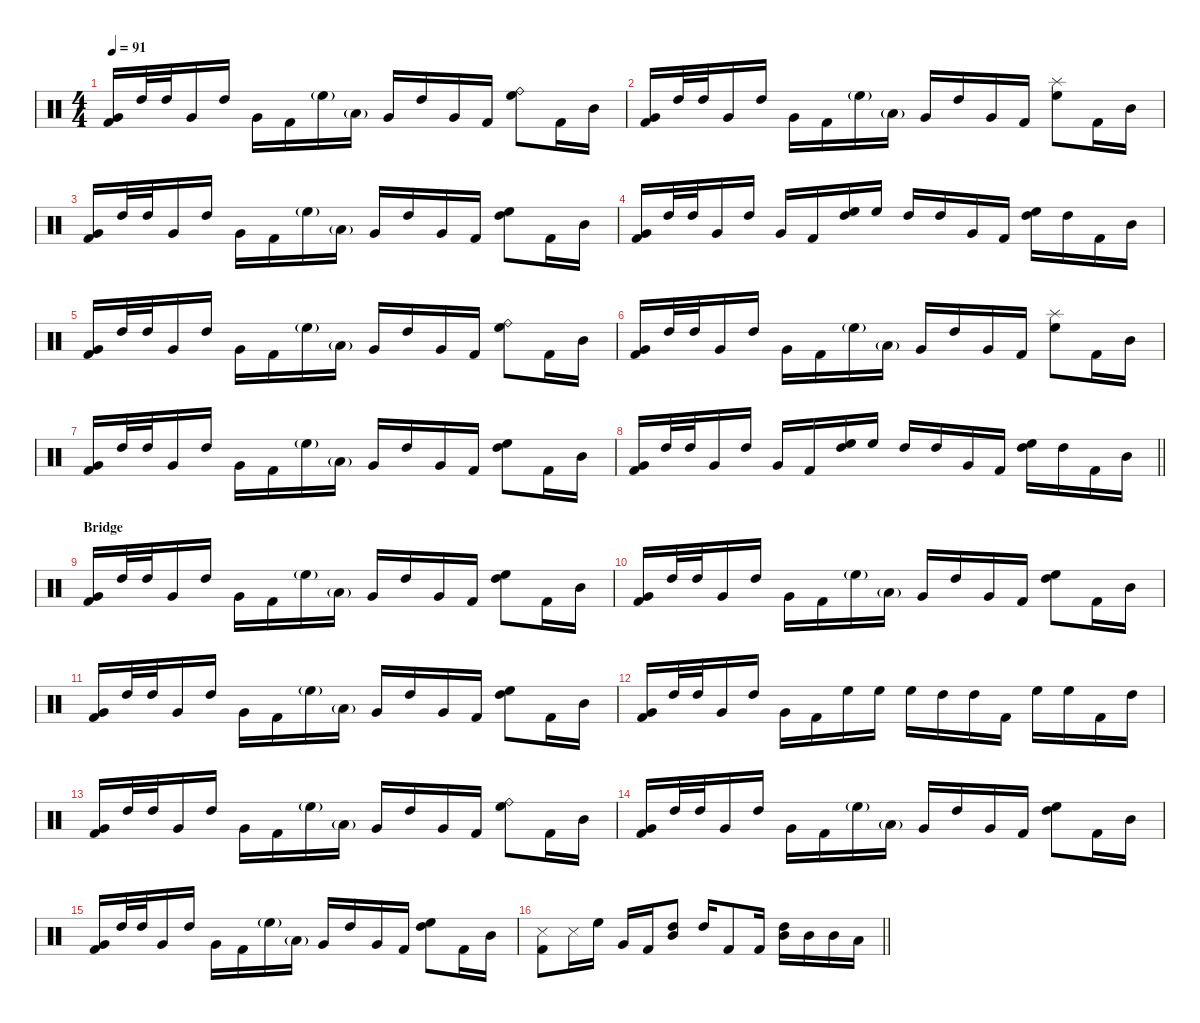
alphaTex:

\defaultSystemsLayout 4
\hideDynamics
\bracketExtendMode nobrackets
\singleTrackTrackNamePolicy hidden
\multiTrackTrackNamePolicy hidden
\otherSystemsTrackNameOrientation horizontal
\track ("Drums" "drm.") {instrument percussion}
\staff {score}
\articulation defaults
\ts (4 4)
\section ("" "")
\tempo 91
\clef neutral
\ks c
("Very Low Tom (hit)" "Kick (hit) 2").16{dy f beam Up} "High Tom (hit)".32{beam Up} "High Tom (hit)".32{beam Up} "Very Low Tom (hit)".16{beam Up} "High Tom (hit)".16{beam Up} "Very Low Tom (hit)".16{beam Down} "Kick (hit) 2".16{beam Down} "High Floor Tom (hit)"{g}.16{dy ff beam Down} "Low Floor Tom (hit)"{g}.16{beam Down} "Very Low Tom (hit)".16{dy f beam Up} "High Tom (hit)".16{beam Up} "Very Low Tom (hit)".16{beam Up} "Kick (hit) 2".16{beam Up} ("Ride (bell)" "High Floor Tom (hit)").8{dy mp beam Down} "Kick (hit) 2".16{dy f beam Down} "Mid Tom (hit)".16{beam Down} |
("Very Low Tom (hit)" "Kick (hit) 2").16{beam Up} "High Tom (hit)".32{beam Up} "High Tom (hit)".32{beam Up} "Very Low Tom (hit)".16{beam Up} "High Tom (hit)".16{beam Up} "Very Low Tom (hit)".16{beam Down} "Kick (hit) 2".16{beam Down} "High Floor Tom (hit)"{g}.16{dy ff beam Down} "Low Floor Tom (hit)"{g}.16{beam Down} "Very Low Tom (hit)".16{dy f beam Up} "High Tom (hit)".16{beam Up} "Very Low Tom (hit)".16{beam Up} "Kick (hit) 2".16{beam Up} ("Splash (hit)" "High Floor Tom (hit)").8{dy mf beam Down} "Kick (hit) 2".16{dy f beam Down} "Mid Tom (hit)".16{beam Down} |
("Very Low Tom (hit)" "Kick (hit) 2").16{beam Up} "High Tom (hit)".32{beam Up} "High Tom (hit)".32{beam Up} "Very Low Tom (hit)".16{beam Up} "High Tom (hit)".16{beam Up} "Very Low Tom (hit)".16{beam Down} "Kick (hit) 2".16{beam Down} "High Floor Tom (hit)"{g}.16{dy ff beam Down} "Low Floor Tom (hit)"{g}.16{beam Down} "Very Low Tom (hit)".16{dy f beam Up} "High Tom (hit)".16{beam Up} "Very Low Tom (hit)".16{beam Up} "Kick (hit) 2".16{beam Up} ("High Floor Tom (hit)" "High Tom (hit)").8{beam Down} "Kick (hit) 2".16{beam Down} "Mid Tom (hit)".16{beam Down} |
("Very Low Tom (hit)" "Kick (hit) 2").16{beam Up} "High Tom (hit)".32{beam Up} "High Tom (hit)".32{beam Up} "Very Low Tom (hit)".16{beam Up} "High Tom (hit)".16{beam Up} "Very Low Tom (hit)".16{beam Up} "Kick (hit) 2".16{beam Up} ("High Floor Tom (hit)" "High Tom (hit)").16{beam Up} "High Floor Tom (hit)".16{beam Up} "High Tom (hit)".16{beam Up} "High Tom (hit)".16{beam Up} "Very Low Tom (hit)".16{beam Up} "Kick (hit) 2".16{beam Up} ("High Floor Tom (hit)" "High Tom (hit)").16{beam Down} "High Tom (hit)".16{beam Down} "Kick (hit) 2".16{beam Down} "Mid Tom (hit)".16{beam Down} |
("Very Low Tom (hit)" "Kick (hit) 2").16{beam Up} "High Tom (hit)".32{beam Up} "High Tom (hit)".32{beam Up} "Very Low Tom (hit)".16{beam Up} "High Tom (hit)".16{beam Up} "Very Low Tom (hit)".16{beam Down} "Kick (hit) 2".16{beam Down} "High Floor Tom (hit)"{g}.16{dy ff beam Down} "Low Floor Tom (hit)"{g}.16{beam Down} "Very Low Tom (hit)".16{dy f beam Up} "High Tom (hit)".16{beam Up} "Very Low Tom (hit)".16{beam Up} "Kick (hit) 2".16{beam Up} ("Ride (bell)" "High Floor Tom (hit)").8{dy mp beam Down} "Kick (hit) 2".16{dy f beam Down} "Mid Tom (hit)".16{beam Down} |
("Very Low Tom (hit)" "Kick (hit) 2").16{beam Up} "High Tom (hit)".32{beam Up} "High Tom (hit)".32{beam Up} "Very Low Tom (hit)".16{beam Up} "High Tom (hit)".16{beam Up} "Very Low Tom (hit)".16{beam Down} "Kick (hit) 2".16{beam Down} "High Floor Tom (hit)"{g}.16{dy ff beam Down} "Low Floor Tom (hit)"{g}.16{beam Down} "Very Low Tom (hit)".16{dy f beam Up} "High Tom (hit)".16{beam Up} "Very Low Tom (hit)".16{beam Up} "Kick (hit) 2".16{beam Up} ("Splash (hit)" "High Floor Tom (hit)").8{dy mf beam Down} "Kick (hit) 2".16{dy f beam Down} "Mid Tom (hit)".16{beam Down} |
("Very Low Tom (hit)" "Kick (hit) 2").16{beam Up} "High Tom (hit)".32{beam Up} "High Tom (hit)".32{beam Up} "Very Low Tom (hit)".16{beam Up} "High Tom (hit)".16{beam Up} "Very Low Tom (hit)".16{beam Down} "Kick (hit) 2".16{beam Down} "High Floor Tom (hit)"{g}.16{dy ff beam Down} "Low Floor Tom (hit)"{g}.16{beam Down} "Very Low Tom (hit)".16{dy f beam Up} "High Tom (hit)".16{beam Up} "Very Low Tom (hit)".16{beam Up} "Kick (hit) 2".16{beam Up} ("High Floor Tom (hit)" "High Tom (hit)").8{beam Down} "Kick (hit) 2".16{beam Down} "Mid Tom (hit)".16{beam Down} |
\barLineRight lightlight
("Very Low Tom (hit)" "Kick (hit) 2").16{beam Up} "High Tom (hit)".32{beam Up} "High Tom (hit)".32{beam Up} "Very Low Tom (hit)".16{beam Up} "High Tom (hit)".16{beam Up} "Very Low Tom (hit)".16{beam Up} "Kick (hit) 2".16{beam Up} ("High Floor Tom (hit)" "High Tom (hit)").16{beam Up} "High Floor Tom (hit)".16{beam Up} "High Tom (hit)".16{beam Up} "High Tom (hit)".16{beam Up} "Very Low Tom (hit)".16{beam Up} "Kick (hit) 2".16{beam Up} ("High Floor Tom (hit)" "High Tom (hit)").16{beam Down} "High Tom (hit)".16{beam Down} "Kick (hit) 2".16{beam Down} "Mid Tom (hit)".16{beam Down} |
\section ("" "Bridge")
("Very Low Tom (hit)" "Kick (hit) 2").16{beam Up} "High Tom (hit)".32{beam Up} "High Tom (hit)".32{beam Up} "Very Low Tom (hit)".16{beam Up} "High Tom (hit)".16{beam Up} "Very Low Tom (hit)".16{beam Down} "Kick (hit) 2".16{beam Down} "High Floor Tom (hit)"{g}.16{dy ff beam Down} "Low Floor Tom (hit)"{g}.16{beam Down} "Very Low Tom (hit)".16{dy f beam Up} "High Tom (hit)".16{beam Up} "Very Low Tom (hit)".16{beam Up} "Kick (hit) 2".16{beam Up} ("High Floor Tom (hit)" "High Tom (hit)").8{beam Down} "Kick (hit) 2".16{beam Down} "Mid Tom (hit)".16{beam Down} |
("Very Low Tom (hit)" "Kick (hit) 2").16{beam Up} "High Tom (hit)".32{beam Up} "High Tom (hit)".32{beam Up} "Very Low Tom (hit)".16{beam Up} "High Tom (hit)".16{beam Up} "Very Low Tom (hit)".16{beam Down} "Kick (hit) 2".16{beam Down} "High Floor Tom (hit)"{g}.16{dy ff beam Down} "Low Floor Tom (hit)"{g}.16{beam Down} "Very Low Tom (hit)".16{dy f beam Up} "High Tom (hit)".16{beam Up} "Very Low Tom (hit)".16{beam Up} "Kick (hit) 2".16{beam Up} ("High Floor Tom (hit)" "High Tom (hit)").8{beam Down} "Kick (hit) 2".16{beam Down} "Mid Tom (hit)".16{beam Down} |
("Very Low Tom (hit)" "Kick (hit) 2").16{beam Up} "High Tom (hit)".32{beam Up} "High Tom (hit)".32{beam Up} "Very Low Tom (hit)".16{beam Up} "High Tom (hit)".16{beam Up} "Very Low Tom (hit)".16{beam Down} "Kick (hit) 2".16{beam Down} "High Floor Tom (hit)"{g}.16{dy ff beam Down} "Low Floor Tom (hit)"{g}.16{beam Down} "Very Low Tom (hit)".16{dy f beam Up} "High Tom (hit)".16{beam Up} "Very Low Tom (hit)".16{beam Up} "Kick (hit) 2".16{beam Up} ("High Floor Tom (hit)" "High Tom (hit)").8{beam Down} "Kick (hit) 2".16{beam Down} "Mid Tom (hit)".16{beam Down} |
("Very Low Tom (hit)" "Kick (hit) 2").16{beam Up} "High Tom (hit)".32{beam Up} "High Tom (hit)".32{beam Up} "Very Low Tom (hit)".16{beam Up} "High Tom (hit)".16{beam Up} "Very Low Tom (hit)".16{beam Down} "Kick (hit) 2".16{beam Down} "High Floor Tom (hit)".16{beam Down} "High Floor Tom (hit)".16{beam Down} "High Floor Tom (hit)".16{beam Down} "High Tom (hit)".16{beam Down} "High Tom (hit)".16{beam Down} "Kick (hit) 2".16{beam Down} "High Floor Tom (hit)".16{beam Down} "High Floor Tom (hit)".16{beam Down} "Kick (hit) 2".16{beam Down} "High Tom (hit)".16{beam Down} |
("Very Low Tom (hit)" "Kick (hit) 2").16{beam Up} "High Tom (hit)".32{beam Up} "High Tom (hit)".32{beam Up} "Very Low Tom (hit)".16{beam Up} "High Tom (hit)".16{beam Up} "Very Low Tom (hit)".16{beam Down} "Kick (hit) 2".16{beam Down} "High Floor Tom (hit)"{g}.16{dy ff beam Down} "Low Floor Tom (hit)"{g}.16{beam Down} "Very Low Tom (hit)".16{dy f beam Up} "High Tom (hit)".16{beam Up} "Very Low Tom (hit)".16{beam Up} "Kick (hit) 2".16{beam Up} ("Ride (bell)" "High Floor Tom (hit)").8{dy mp beam Down} "Kick (hit) 2".16{dy f beam Down} "Mid Tom (hit)".16{beam Down} |
("Very Low Tom (hit)" "Kick (hit) 2").16{beam Up} "High Tom (hit)".32{beam Up} "High Tom (hit)".32{beam Up} "Very Low Tom (hit)".16{beam Up} "High Tom (hit)".16{beam Up} "Very Low Tom (hit)".16{beam Down} "Kick (hit) 2".16{beam Down} "High Floor Tom (hit)"{g}.16{dy ff beam Down} "Low Floor Tom (hit)"{g}.16{beam Down} "Very Low Tom (hit)".16{dy f beam Up} "High Tom (hit)".16{beam Up} "Very Low Tom (hit)".16{beam Up} "Kick (hit) 2".16{beam Up} ("High Floor Tom (hit)" "High Tom (hit)").8{beam Down} "Kick (hit) 2".16{beam Down} "Mid Tom (hit)".16{beam Down} |
("Very Low Tom (hit)" "Kick (hit) 2").16{beam Up} "High Tom (hit)".32{beam Up} "High Tom (hit)".32{beam Up} "Very Low Tom (hit)".16{beam Up} "High Tom (hit)".16{beam Up} "Very Low Tom (hit)".16{beam Down} "Kick (hit) 2".16{beam Down} "High Floor Tom (hit)"{g}.16{dy ff beam Down} "Low Floor Tom (hit)"{g}.16{beam Down} "Very Low Tom (hit)".16{dy f beam Up} "High Tom (hit)".16{beam Up} "Very Low Tom (hit)".16{beam Up} "Kick (hit) 2".16{beam Up} ("High Floor Tom (hit)" "High Tom (hit)").8{beam Down} "Kick (hit) 2".16{beam Down} "Mid Tom (hit)".16{beam Down} |
\barLineRight lightlight
("Snare (side stick) 3" "Kick (hit) 2").8{beam Down} "Snare (side stick) 3".16{beam Down} "High Floor Tom (hit)".16{beam Down} "Very Low Tom (hit)".16{beam Up} "Kick (hit) 2".16{beam Up} ("High Tom (hit)" "Mid Tom (hit)").8{beam Up} "High Tom (hit)".16{beam Up} "Kick (hit) 2".8{beam Up} "Kick (hit) 2".16{beam Up} ("High Tom (hit)" "Mid Tom (hit)").16{beam Down} "Mid Tom (hit)".16{beam Down} "Mid Tom (hit)".16{beam Down} "Low Tom (hit)".16{beam Down}
